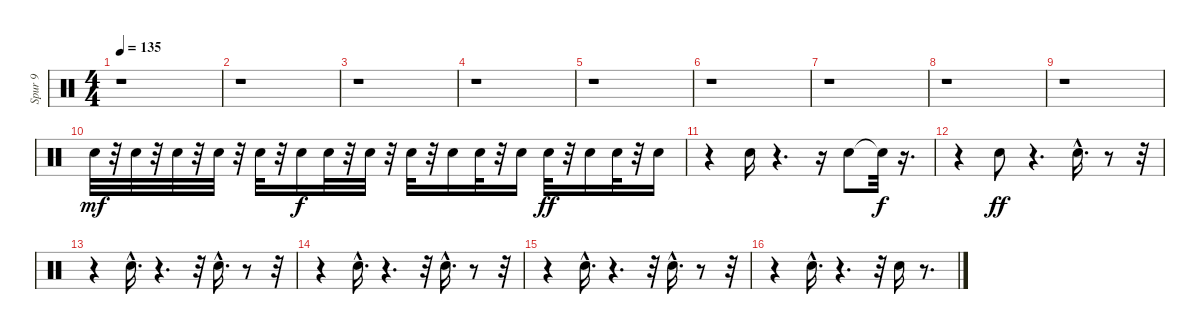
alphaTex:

\track ("Spur 9" "Spur 9") {instrument percussion}
\staff {score}
\articulation defaults
\ts (4 4)
\tempo 135
\clef neutral
\ks c
r.1{dy mf} |
r.1 |
r.1 |
r.1 |
r.1 |
r.1 |
r.1 |
r.1 |
r.1 |
"Electric Snare (hit)".32 r.32 "Electric Snare (hit)".32 r.32 "Electric Snare (hit)".32 r.32 "Electric Snare (hit)".32 r.32 "Electric Snare (hit)".32 r.32 "Electric Snare (hit)".16{dy f} "Electric Snare (hit)".32 r.32 "Electric Snare (hit)".32 r.32 "Electric Snare (hit)".32 r.32 "Electric Snare (hit)".16 "Electric Snare (hit)".32 r.32 "Electric Snare (hit)".16 "Electric Snare (hit)".32{dy ff} r.32 "Electric Snare (hit)".16 "Electric Snare (hit)".32 r.32 "Electric Snare (hit)".16 |
r.4 "Electric Snare (hit)".16 r.4{d} r.16 "Electric Snare (hit)".8 "Snare (hit)"{t}.32{dy f} r.16{d} |
r.4 "Electric Snare (hit)".8{dy ff} r.4{d} "Electric Snare (hit)"{hac}.16{d} r.8 r.32 |
r.4 "Electric Snare (hit)"{hac}.16{d} r.4{d} r.32 "Electric Snare (hit)"{hac}.16{d} r.8 r.32 |
r.4 "Electric Snare (hit)"{hac}.16{d} r.4{d} r.32 "Electric Snare (hit)"{hac}.16{d} r.8 r.32 |
r.4 "Electric Snare (hit)"{hac}.16{d} r.4{d} r.32 "Electric Snare (hit)"{hac}.16{d} r.8 r.32 |
r.4 "Electric Snare (hit)"{hac}.16{d} r.4{d} r.32 "Electric Snare (hit)".16 r.8{d}
